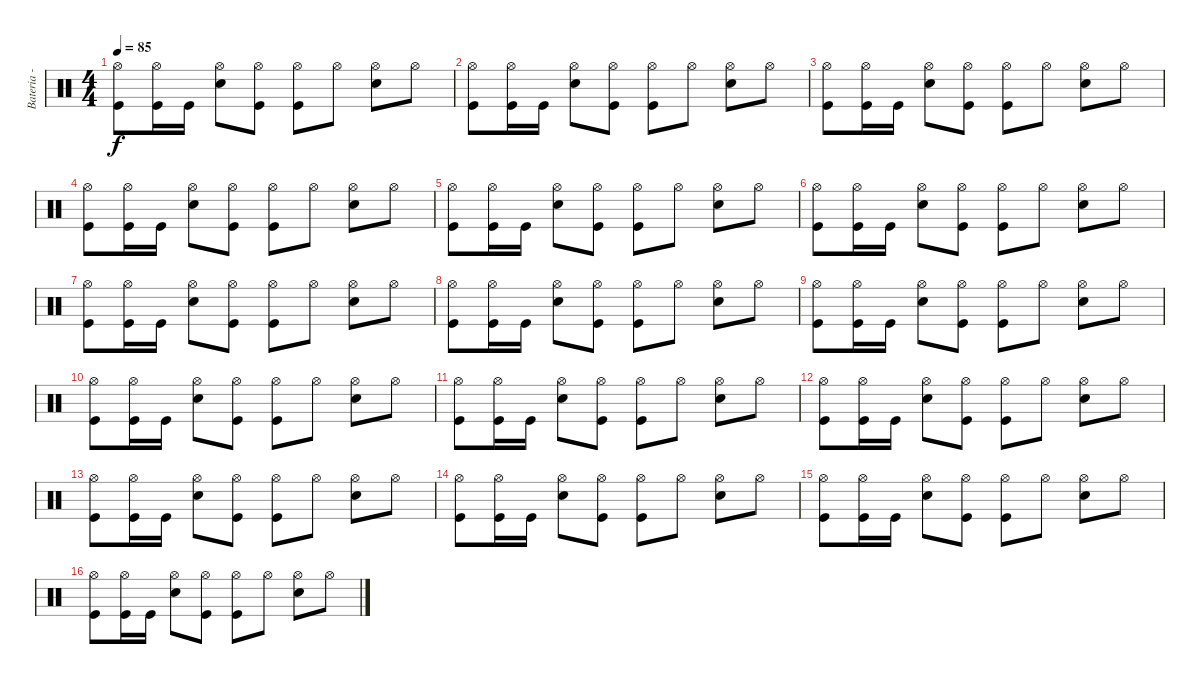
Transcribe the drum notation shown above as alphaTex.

\track ("Bateria - Joaquin" "Bateria - ") {instrument percussion}
\staff {score}
\articulation defaults
\ts (4 4)
\tempo 85
\clef neutral
\ks c
("Hi-Hat (open)" "Kick (hit)").8{dy f} ("Hi-Hat (open)" "Kick (hit)").16 "Kick (hit)".16 ("Hi-Hat (open)" "Snare (hit) 2").8 ("Hi-Hat (open)" "Kick (hit)").8 ("Hi-Hat (open)" "Kick (hit)").8 "Hi-Hat (open)".8 ("Hi-Hat (open)" "Snare (hit) 2").8 "Hi-Hat (open)".8 |
("Hi-Hat (open)" "Kick (hit)").8 ("Hi-Hat (open)" "Kick (hit)").16 "Kick (hit)".16 ("Hi-Hat (open)" "Snare (hit) 2").8 ("Hi-Hat (open)" "Kick (hit)").8 ("Hi-Hat (open)" "Kick (hit)").8 "Hi-Hat (open)".8 ("Hi-Hat (open)" "Snare (hit) 2").8 "Hi-Hat (open)".8 |
("Hi-Hat (open)" "Kick (hit)").8 ("Hi-Hat (open)" "Kick (hit)").16 "Kick (hit)".16 ("Hi-Hat (open)" "Snare (hit) 2").8 ("Hi-Hat (open)" "Kick (hit)").8 ("Hi-Hat (open)" "Kick (hit)").8 "Hi-Hat (open)".8 ("Hi-Hat (open)" "Snare (hit) 2").8 "Hi-Hat (open)".8 |
("Hi-Hat (open)" "Kick (hit)").8 ("Hi-Hat (open)" "Kick (hit)").16 "Kick (hit)".16 ("Hi-Hat (open)" "Snare (hit) 2").8 ("Hi-Hat (open)" "Kick (hit)").8 ("Hi-Hat (open)" "Kick (hit)").8 "Hi-Hat (open)".8 ("Hi-Hat (open)" "Snare (hit) 2").8 "Hi-Hat (open)".8 |
("Hi-Hat (open)" "Kick (hit)").8 ("Hi-Hat (open)" "Kick (hit)").16 "Kick (hit)".16 ("Hi-Hat (open)" "Snare (hit) 2").8 ("Hi-Hat (open)" "Kick (hit)").8 ("Hi-Hat (open)" "Kick (hit)").8 "Hi-Hat (open)".8 ("Hi-Hat (open)" "Snare (hit) 2").8 "Hi-Hat (open)".8 |
("Hi-Hat (open)" "Kick (hit)").8 ("Hi-Hat (open)" "Kick (hit)").16 "Kick (hit)".16 ("Hi-Hat (open)" "Snare (hit) 2").8 ("Hi-Hat (open)" "Kick (hit)").8 ("Hi-Hat (open)" "Kick (hit)").8 "Hi-Hat (open)".8 ("Hi-Hat (open)" "Snare (hit) 2").8 "Hi-Hat (open)".8 |
("Hi-Hat (open)" "Kick (hit)").8 ("Hi-Hat (open)" "Kick (hit)").16 "Kick (hit)".16 ("Hi-Hat (open)" "Snare (hit) 2").8 ("Hi-Hat (open)" "Kick (hit)").8 ("Hi-Hat (open)" "Kick (hit)").8 "Hi-Hat (open)".8 ("Hi-Hat (open)" "Snare (hit) 2").8 "Hi-Hat (open)".8 |
("Hi-Hat (open)" "Kick (hit)").8 ("Hi-Hat (open)" "Kick (hit)").16 "Kick (hit)".16 ("Hi-Hat (open)" "Snare (hit) 2").8 ("Hi-Hat (open)" "Kick (hit)").8 ("Hi-Hat (open)" "Kick (hit)").8 "Hi-Hat (open)".8 ("Hi-Hat (open)" "Snare (hit) 2").8 "Hi-Hat (open)".8 |
("Hi-Hat (open)" "Kick (hit)").8 ("Hi-Hat (open)" "Kick (hit)").16 "Kick (hit)".16 ("Hi-Hat (open)" "Snare (hit) 2").8 ("Hi-Hat (open)" "Kick (hit)").8 ("Hi-Hat (open)" "Kick (hit)").8 "Hi-Hat (open)".8 ("Hi-Hat (open)" "Snare (hit) 2").8 "Hi-Hat (open)".8 |
("Hi-Hat (open)" "Kick (hit)").8 ("Hi-Hat (open)" "Kick (hit)").16 "Kick (hit)".16 ("Hi-Hat (open)" "Snare (hit) 2").8 ("Hi-Hat (open)" "Kick (hit)").8 ("Hi-Hat (open)" "Kick (hit)").8 "Hi-Hat (open)".8 ("Hi-Hat (open)" "Snare (hit) 2").8 "Hi-Hat (open)".8 |
("Hi-Hat (open)" "Kick (hit)").8 ("Hi-Hat (open)" "Kick (hit)").16 "Kick (hit)".16 ("Hi-Hat (open)" "Snare (hit) 2").8 ("Hi-Hat (open)" "Kick (hit)").8 ("Hi-Hat (open)" "Kick (hit)").8 "Hi-Hat (open)".8 ("Hi-Hat (open)" "Snare (hit) 2").8 "Hi-Hat (open)".8 |
("Hi-Hat (open)" "Kick (hit)").8 ("Hi-Hat (open)" "Kick (hit)").16 "Kick (hit)".16 ("Hi-Hat (open)" "Snare (hit) 2").8 ("Hi-Hat (open)" "Kick (hit)").8 ("Hi-Hat (open)" "Kick (hit)").8 "Hi-Hat (open)".8 ("Hi-Hat (open)" "Snare (hit) 2").8 "Hi-Hat (open)".8 |
("Hi-Hat (open)" "Kick (hit)").8 ("Hi-Hat (open)" "Kick (hit)").16 "Kick (hit)".16 ("Hi-Hat (open)" "Snare (hit) 2").8 ("Hi-Hat (open)" "Kick (hit)").8 ("Hi-Hat (open)" "Kick (hit)").8 "Hi-Hat (open)".8 ("Hi-Hat (open)" "Snare (hit) 2").8 "Hi-Hat (open)".8 |
("Hi-Hat (open)" "Kick (hit)").8 ("Hi-Hat (open)" "Kick (hit)").16 "Kick (hit)".16 ("Hi-Hat (open)" "Snare (hit) 2").8 ("Hi-Hat (open)" "Kick (hit)").8 ("Hi-Hat (open)" "Kick (hit)").8 "Hi-Hat (open)".8 ("Hi-Hat (open)" "Snare (hit) 2").8 "Hi-Hat (open)".8 |
("Hi-Hat (open)" "Kick (hit)").8 ("Hi-Hat (open)" "Kick (hit)").16 "Kick (hit)".16 ("Hi-Hat (open)" "Snare (hit) 2").8 ("Hi-Hat (open)" "Kick (hit)").8 ("Hi-Hat (open)" "Kick (hit)").8 "Hi-Hat (open)".8 ("Hi-Hat (open)" "Snare (hit) 2").8 "Hi-Hat (open)".8 |
("Hi-Hat (open)" "Kick (hit)").8 ("Hi-Hat (open)" "Kick (hit)").16 "Kick (hit)".16 ("Hi-Hat (open)" "Snare (hit) 2").8 ("Hi-Hat (open)" "Kick (hit)").8 ("Hi-Hat (open)" "Kick (hit)").8 "Hi-Hat (open)".8 ("Hi-Hat (open)" "Snare (hit) 2").8 "Hi-Hat (open)".8
